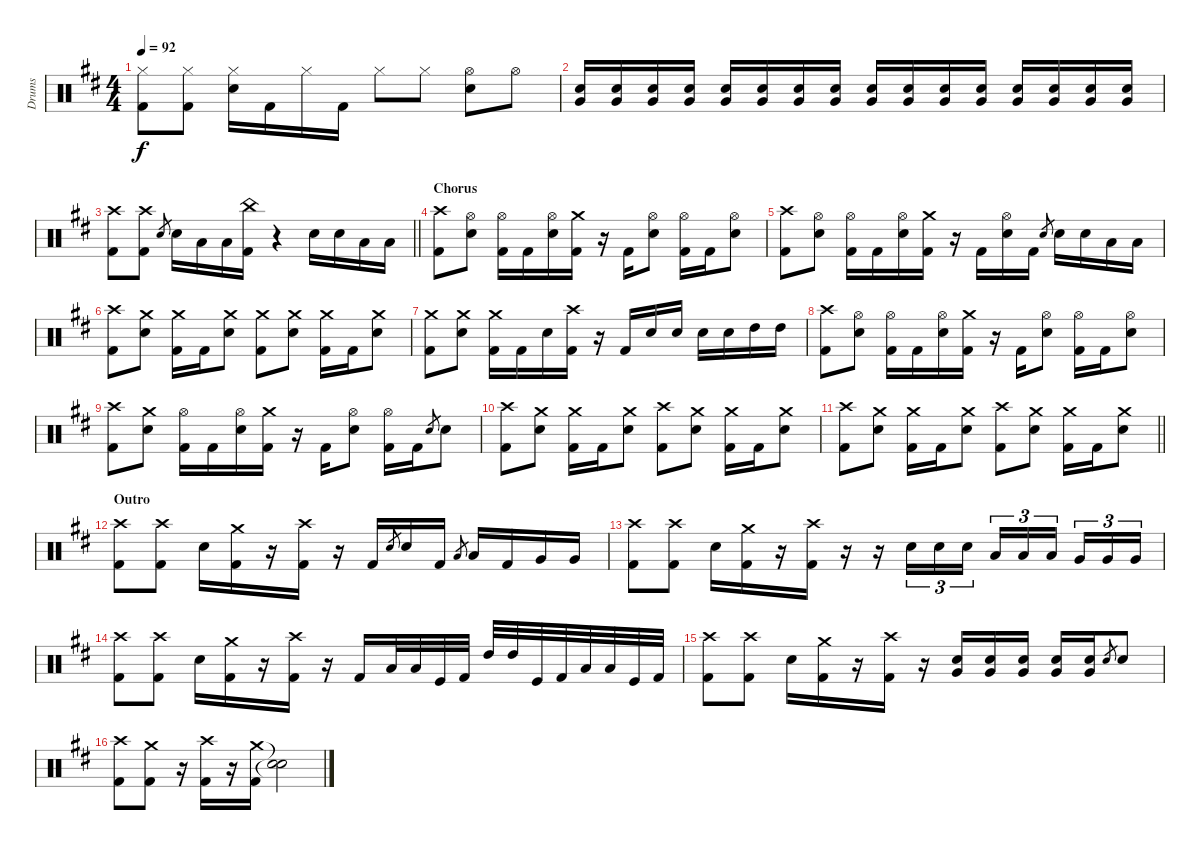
\track ("Drums" "Drums") {instrument percussion}
\staff {score}
\articulation defaults
\ts (4 4)
\tempo 92
\clef neutral
\ks d
("Hi-Hat (closed)" "Kick (hit) 2").8{dy f} ("Hi-Hat (closed)" "Kick (hit) 2").8 ("Hi-Hat (closed)" "Snare (hit) 2").16 "Kick (hit) 2".16 "Hi-Hat (closed)".16 "Kick (hit) 2".16 "Hi-Hat (closed)".8 "Hi-Hat (closed)".8 ("Hi-Hat (open)" "Snare (hit) 2").8 "Hi-Hat (open)".8 |
("Very Low Tom (hit)" "Snare (hit) 2").16 ("Very Low Tom (hit)" "Snare (hit) 2").16 ("Very Low Tom (hit)" "Snare (hit) 2").16 ("Very Low Tom (hit)" "Snare (hit) 2").16 ("Very Low Tom (hit)" "Snare (hit) 2").16 ("Very Low Tom (hit)" "Snare (hit) 2").16 ("Very Low Tom (hit)" "Snare (hit) 2").16 ("Very Low Tom (hit)" "Snare (hit) 2").16 ("Very Low Tom (hit)" "Snare (hit) 2").16 ("Very Low Tom (hit)" "Snare (hit) 2").16 ("Very Low Tom (hit)" "Snare (hit) 2").16 ("Very Low Tom (hit)" "Snare (hit) 2").16 ("Very Low Tom (hit)" "Snare (hit) 2").16 ("Very Low Tom (hit)" "Snare (hit) 2").16 ("Very Low Tom (hit)" "Snare (hit) 2").16 ("Very Low Tom (hit)" "Snare (hit) 2").16 |
\barLineRight lightlight
("Crash high (hit)" "Kick (hit) 2").8 ("Crash high (hit)" "Kick (hit) 2").8 "Snare (hit) 2".8{gr} "Snare (hit) 2".16 "Low Tom (hit)".16 "Low Tom (hit)".16 ("China (hit)" "Kick (hit) 2").16 r.4 "Snare (hit) 2".16 "Snare (hit) 2".16 "Low Tom (hit)".16 "Low Tom (hit)".16 |
\section ("" "Chorus")
("Crash high (hit)" "Kick (hit) 2").8 ("Hi-Hat (open)" "Snare (hit) 2").8 ("Hi-Hat (open)" "Kick (hit) 2").16 "Kick (hit) 2".16 ("Hi-Hat (open)" "Snare (hit) 2").16 ("Crash medium (hit)" "Kick (hit) 2").16 r.16 "Kick (hit) 2".16 ("Hi-Hat (open)" "Snare (hit) 2").8 ("Hi-Hat (open)" "Kick (hit) 2").16 "Kick (hit) 2".16 ("Hi-Hat (open)" "Snare (hit) 2").8 |
("Crash high (hit)" "Kick (hit) 2").8 ("Hi-Hat (open)" "Snare (hit) 2").8 ("Hi-Hat (open)" "Kick (hit) 2").16 "Kick (hit) 2".16 ("Hi-Hat (open)" "Snare (hit) 2").16 ("Crash medium (hit)" "Kick (hit) 2").16 r.16 "Kick (hit) 2".16 ("Hi-Hat (open)" "Snare (hit) 2").16 "Kick (hit) 2".16 "Snare (hit) 2".8{gr} "Snare (hit) 2".16 "Snare (hit) 2".16 "Low Tom (hit)".16 "Low Tom (hit)".16 |
("Crash high (hit)" "Kick (hit) 2").8 ("Crash medium (hit)" "Snare (hit) 2").8 ("Crash medium (hit)" "Kick (hit) 2").16 "Kick (hit) 2".16 ("Crash medium (hit)" "Snare (hit) 2").8 ("Crash medium (hit)" "Kick (hit) 2").8 ("Crash medium (hit)" "Snare (hit) 2").8 ("Crash medium (hit)" "Kick (hit) 2").16 "Kick (hit) 2".16 ("Crash medium (hit)" "Snare (hit) 2").8 |
("Crash medium (hit)" "Kick (hit) 2").8 ("Crash medium (hit)" "Snare (hit) 2").8 ("Crash medium (hit)" "Kick (hit) 2").16 "Kick (hit) 2".16 "Snare (hit) 2".16 ("Crash high (hit)" "Kick (hit) 2").16 r.16 "Kick (hit) 2".16 "Snare (hit) 2".16 "Snare (hit) 2".16 "Snare (hit) 2".16 "Snare (hit) 2".16 "High Tom (hit)".16 "High Tom (hit)".16 |
("Crash high (hit)" "Kick (hit) 2").8 ("Hi-Hat (open)" "Snare (hit) 2").8 ("Hi-Hat (open)" "Kick (hit) 2").16 "Kick (hit) 2".16 ("Hi-Hat (open)" "Snare (hit) 2").16 ("Crash medium (hit)" "Kick (hit) 2").16 r.16 "Kick (hit) 2".16 ("Hi-Hat (open)" "Snare (hit) 2").8 ("Hi-Hat (open)" "Kick (hit) 2").16 "Kick (hit) 2".16 ("Hi-Hat (open)" "Snare (hit) 2").8 |
("Crash high (hit)" "Kick (hit) 2").8 ("Crash medium (hit)" "Snare (hit) 2").8 ("Hi-Hat (open)" "Kick (hit) 2").16 "Kick (hit) 2".16 ("Hi-Hat (open)" "Snare (hit) 2").16 ("Crash medium (hit)" "Kick (hit) 2").16 r.16 "Kick (hit) 2".16 ("Hi-Hat (open)" "Snare (hit) 2").8 ("Hi-Hat (open)" "Kick (hit) 2").16 "Kick (hit) 2".16 "Snare (hit) 2".8{gr} "Snare (hit) 2".8 |
("Crash high (hit)" "Kick (hit) 2").8 ("Crash medium (hit)" "Snare (hit) 2").8 ("Crash medium (hit)" "Kick (hit) 2").16 "Kick (hit) 2".16 ("Crash medium (hit)" "Snare (hit) 2").8 ("Crash high (hit)" "Kick (hit) 2").8 ("Crash medium (hit)" "Snare (hit) 2").8 ("Crash medium (hit)" "Kick (hit) 2").16 "Kick (hit) 2".16 ("Crash medium (hit)" "Snare (hit) 2").8 |
\barLineRight lightlight
("Crash high (hit)" "Kick (hit) 2").8 ("Crash medium (hit)" "Snare (hit) 2").8 ("Crash medium (hit)" "Kick (hit) 2").16 "Kick (hit) 2".16 ("Crash medium (hit)" "Snare (hit) 2").8 ("Crash high (hit)" "Kick (hit) 2").8 ("Crash medium (hit)" "Snare (hit) 2").8 ("Crash medium (hit)" "Kick (hit) 2").16 "Kick (hit) 2".16 ("Crash medium (hit)" "Snare (hit) 2").8 |
\section ("" "Outro")
("Crash high (hit)" "Kick (hit) 2").8 ("Crash high (hit)" "Kick (hit) 2").8 "Snare (hit) 2".16 ("Crash medium (hit)" "Kick (hit) 2").16 r.16 ("Crash high (hit)" "Kick (hit) 2").16 r.16 "Kick (hit) 2".16 "Snare (hit) 2".8{gr} "Snare (hit) 2".16 "Kick (hit) 2".16 "Low Tom (hit)".8{gr} "Low Tom (hit)".16 "Kick (hit) 2".16 "Very Low Tom (hit)".16 "Very Low Tom (hit)".16 |
("Crash high (hit)" "Kick (hit) 2").8 ("Crash high (hit)" "Kick (hit) 2").8 "Snare (hit) 2".16 ("Crash medium (hit)" "Kick (hit) 2").16 r.16 ("Crash high (hit)" "Kick (hit) 2").16 r.16 r.16 "Snare (hit) 2".16{tu (3 2)} "Snare (hit) 2".16{tu (3 2)} "Snare (hit) 2".16{tu (3 2)} "Low Tom (hit)".16{tu (3 2)} "Low Tom (hit)".16{tu (3 2)} "Low Tom (hit)".16{tu (3 2) beam splitsecondary} "Very Low Tom (hit)".16{tu (3 2)} "Very Low Tom (hit)".16{tu (3 2)} "Very Low Tom (hit)".16{tu (3 2)} |
("Crash high (hit)" "Kick (hit) 2").8 ("Crash high (hit)" "Kick (hit) 2").8 "Snare (hit) 2".16 ("Crash medium (hit)" "Kick (hit) 2").16 r.16 ("Crash high (hit)" "Kick (hit) 2").16 r.16 "Kick (hit) 2".16 "Low Tom (hit)".32 "Low Tom (hit)".32 "Kick (hit)".32 "Kick (hit) 2".32 "High Tom (hit)".32 "High Tom (hit)".32 "Kick (hit)".32 "Kick (hit) 2".32 "Low Tom (hit)".32 "Low Tom (hit)".32 "Kick (hit)".32 "Kick (hit) 2".32 |
("Crash high (hit)" "Kick (hit) 2").8 ("Crash high (hit)" "Kick (hit) 2").8 "Snare (hit) 2".16 ("Crash medium (hit)" "Kick (hit) 2").16 r.16 ("Crash high (hit)" "Kick (hit) 2").16 r.16 ("Very Low Tom (hit)" "Snare (hit) 2").16 ("Very Low Tom (hit)" "Snare (hit) 2").16 ("Very Low Tom (hit)" "Snare (hit) 2").16 ("Very Low Tom (hit)" "Snare (hit) 2").16 ("Very Low Tom (hit)" "Snare (hit) 2").16 "Snare (hit) 2".8{gr} "Snare (hit) 2".8 |
("Crash high (hit)" "Kick (hit) 2").8 ("Crash medium (hit)" "Kick (hit) 2").8 r.16 ("Crash high (hit)" "Kick (hit) 2").16 r.16 ("Crash medium (hit)" "Kick (hit) 2").16 ("Snare (hit)"{t} "Snare (hit)"{t}).2
